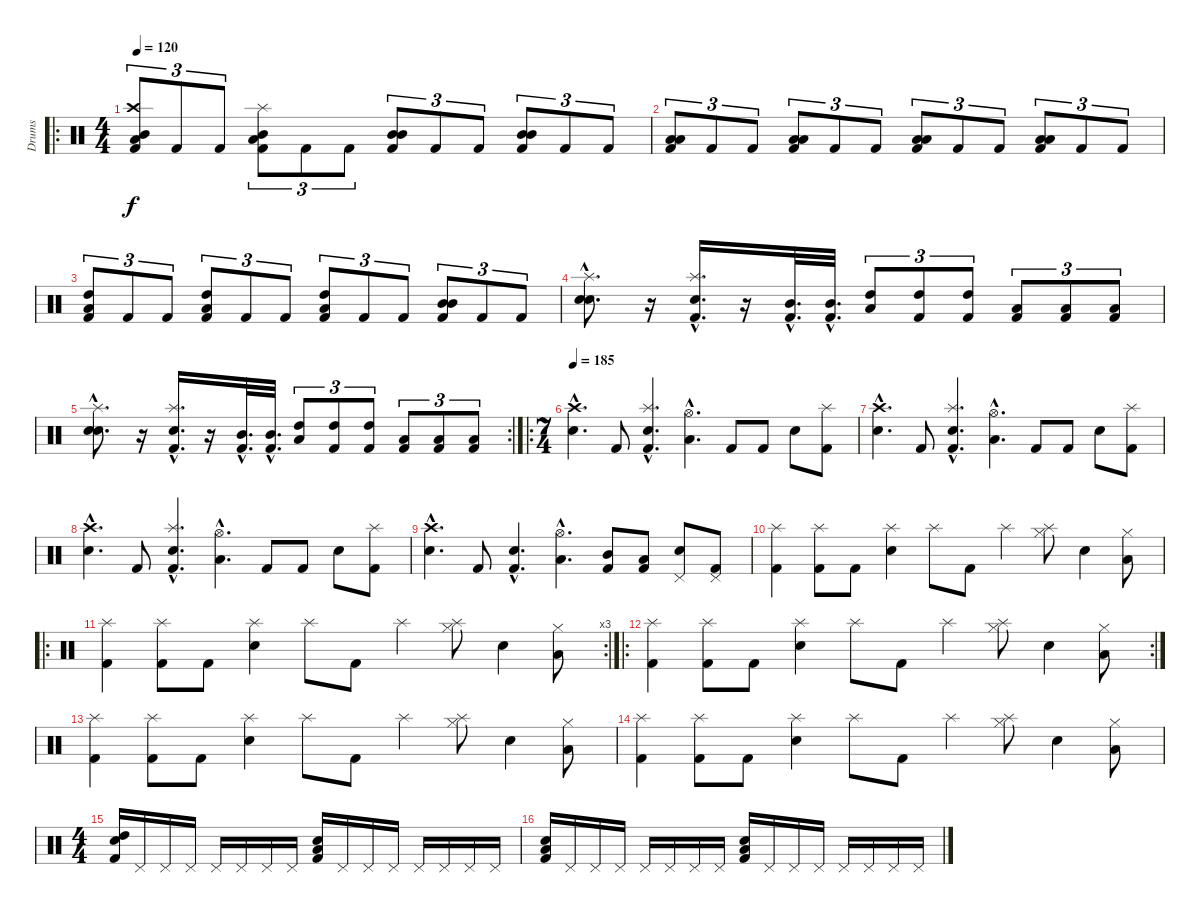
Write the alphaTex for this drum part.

\track ("Drums" "Drums") {instrument percussion}
\staff {score}
\articulation defaults
\ro
\ts (4 4)
\tempo 120
\clef neutral
\ks c
("Low Tom (hit)" "Mid Tom (hit)" "Crash high (hit)" "Kick (hit) 2").8{tu (3 2) dy f} "Kick (hit) 2".8{tu (3 2)} "Kick (hit) 2".8{tu (3 2)} ("Low Tom (hit)" "Mid Tom (hit)" "Splash (hit)" "Kick (hit) 2").8{tu (3 2)} "Kick (hit) 2".8{tu (3 2)} "Kick (hit) 2".8{tu (3 2)} ("Mid Tom (hit)" "Mid Tom (hit)" "Kick (hit) 2").8{tu (3 2)} "Kick (hit) 2".8{tu (3 2)} "Kick (hit) 2".8{tu (3 2)} ("Mid Tom (hit)" "Mid Tom (hit)" "Kick (hit) 2").8{tu (3 2)} "Kick (hit) 2".8{tu (3 2)} "Kick (hit) 2".8{tu (3 2)} |
("Low Tom (hit)" "Low Tom (hit)" "Kick (hit) 2").8{tu (3 2)} "Kick (hit) 2".8{tu (3 2)} "Kick (hit) 2".8{tu (3 2)} ("Low Tom (hit)" "Low Tom (hit)" "Kick (hit) 2").8{tu (3 2)} "Kick (hit) 2".8{tu (3 2)} "Kick (hit) 2".8{tu (3 2)} ("Low Tom (hit)" "Low Tom (hit)" "Kick (hit) 2").8{tu (3 2)} "Kick (hit) 2".8{tu (3 2)} "Kick (hit) 2".8{tu (3 2)} ("Low Tom (hit)" "Low Tom (hit)" "Kick (hit) 2").8{tu (3 2)} "Kick (hit) 2".8{tu (3 2)} "Kick (hit) 2".8{tu (3 2)} |
("Low Tom (hit)" "High Tom (hit)" "Kick (hit) 2").8{tu (3 2)} "Kick (hit) 2".8{tu (3 2)} "Kick (hit) 2".8{tu (3 2)} ("Low Tom (hit)" "High Tom (hit)" "Kick (hit) 2").8{tu (3 2)} "Kick (hit) 2".8{tu (3 2)} "Kick (hit) 2".8{tu (3 2)} ("Low Tom (hit)" "High Tom (hit)" "Kick (hit) 2").8{tu (3 2)} "Kick (hit) 2".8{tu (3 2)} "Kick (hit) 2".8{tu (3 2)} ("Mid Tom (hit)" "Mid Tom (hit)" "Kick (hit) 2").8{tu (3 2)} "Kick (hit) 2".8{tu (3 2)} "Kick (hit) 2".8{tu (3 2)} |
("Splash (hit)"{hac} "Snare (hit) 2"{hac} "Electric Snare (hit)"{hac}).8{d} r.16 ("Splash (hit)"{hac} "Electric Snare (hit)"{hac} "Kick (hit) 2"{hac}).16{d} r.16 ("Mid Tom (hit)"{hac} "Kick (hit) 2"{hac}).32{d} ("Mid Tom (hit)"{hac} "Kick (hit) 2"{hac}).32{d} ("High Tom (hit)" "Low Tom (hit)").8{tu (3 2)} ("High Tom (hit)" "Kick (hit) 2").8{tu (3 2)} ("High Tom (hit)" "Kick (hit) 2").8{tu (3 2)} ("Low Tom (hit)" "Kick (hit) 2").8{tu (3 2)} ("Low Tom (hit)" "Kick (hit) 2").8{tu (3 2)} ("Low Tom (hit)" "Kick (hit) 2").8{tu (3 2)} |
\rc 2
("Splash (hit)"{hac} "Snare (hit) 2"{hac} "Electric Snare (hit)"{hac}).8{d} r.16 ("Electric Snare (hit)"{hac} "Splash (hit)"{hac} "Kick (hit) 2"{hac}).16{d} r.16 ("Mid Tom (hit)"{hac} "Kick (hit) 2"{hac}).32{d} ("Mid Tom (hit)"{hac} "Kick (hit) 2"{hac}).32{d} ("High Tom (hit)" "Low Tom (hit)").8{tu (3 2)} ("High Tom (hit)" "Kick (hit) 2").8{tu (3 2)} ("High Tom (hit)" "Kick (hit) 2").8{tu (3 2)} ("Low Tom (hit)" "Kick (hit) 2").8{tu (3 2)} ("Low Tom (hit)" "Kick (hit) 2").8{tu (3 2)} ("Low Tom (hit)" "Kick (hit) 2").8{tu (3 2)} |
\ro
\ts (7 4)
\tempo 185
("Crash high (hit)"{hac} "Electric Snare (hit)"{hac}).4{d} "Kick (hit) 2".8 ("Splash (hit)"{hac} "Kick (hit) 2"{hac} "Electric Snare (hit)"{hac}).4{d} ("Hi-Hat (open)"{hac} "Low Tom (hit)"{hac}).4{d} "Kick (hit) 2".8 "Kick (hit) 2".8 "Electric Snare (hit)".8 ("Splash (hit)" "Kick (hit) 2").8 |
("Crash high (hit)"{hac} "Electric Snare (hit)"{hac}).4{d} "Kick (hit) 2".8 ("Splash (hit)"{hac} "Kick (hit) 2"{hac} "Electric Snare (hit)"{hac}).4{d} ("Hi-Hat (open)"{hac} "Low Tom (hit)"{hac}).4{d} "Kick (hit) 2".8 "Kick (hit) 2".8 "Electric Snare (hit)".8 ("Splash (hit)" "Kick (hit) 2").8 |
("Crash high (hit)"{hac} "Electric Snare (hit)"{hac}).4{d} "Kick (hit) 2".8 ("Splash (hit)"{hac} "Kick (hit) 2"{hac} "Electric Snare (hit)"{hac}).4{d} ("Hi-Hat (open)"{hac} "Low Tom (hit)"{hac}).4{d} "Kick (hit) 2".8 "Kick (hit) 2".8 "Electric Snare (hit)".8 ("Splash (hit)" "Kick (hit) 2").8 |
("Crash high (hit)"{hac} "Electric Snare (hit)"{hac}).4{d} "Kick (hit) 2".8 ("Kick (hit) 2"{hac} "Electric Snare (hit)"{hac}).4{d} ("Hi-Hat (open)"{hac} "Low Tom (hit)"{hac}).4{d} ("Mid Tom (hit)" "Kick (hit) 2").8 ("Low Tom (hit)" "Kick (hit) 2").8 ("Pedal Hi-Hat (hit)" "Electric Snare (hit)").8 ("Pedal Hi-Hat (hit)" "Kick (hit) 2").8 |
("Kick (hit) 2" "Splash (hit)").4 ("Splash (hit)" "Kick (hit) 2").8 "Kick (hit) 2".8 ("Splash (hit)" "Electric Snare (hit)").4 "Splash (hit)".8 "Kick (hit) 2".8 "Splash (hit)".4 ("Splash (hit)" "Hi-Hat (closed)").8 "Electric Snare (hit)".4 ("Hi-Hat (closed)" "Low Tom (hit)").8 |
\ro
\rc 3
("Kick (hit) 2" "Splash (hit)").4 ("Splash (hit)" "Kick (hit) 2").8 "Kick (hit) 2".8 ("Splash (hit)" "Electric Snare (hit)").4 "Splash (hit)".8 "Kick (hit) 2".8 "Splash (hit)".4 ("Splash (hit)" "Hi-Hat (closed)").8 "Electric Snare (hit)".4 ("Hi-Hat (closed)" "Low Tom (hit)").8 |
\ro
\rc 2
("Kick (hit) 2" "Splash (hit)").4 ("Splash (hit)" "Kick (hit) 2").8 "Kick (hit) 2".8 ("Splash (hit)" "Electric Snare (hit)").4 "Splash (hit)".8 "Kick (hit) 2".8 "Splash (hit)".4 ("Splash (hit)" "Hi-Hat (closed)").8 "Electric Snare (hit)".4 ("Hi-Hat (closed)" "Low Tom (hit)").8 |
("Kick (hit) 2" "Splash (hit)").4 ("Splash (hit)" "Kick (hit) 2").8 "Kick (hit) 2".8 ("Splash (hit)" "Electric Snare (hit)").4 "Splash (hit)".8 "Kick (hit) 2".8 "Splash (hit)".4 ("Splash (hit)" "Hi-Hat (closed)").8 "Electric Snare (hit)".4 ("Hi-Hat (closed)" "Low Tom (hit)").8 |
("Kick (hit) 2" "Splash (hit)").4 ("Splash (hit)" "Kick (hit) 2").8 "Kick (hit) 2".8 ("Splash (hit)" "Electric Snare (hit)").4 "Splash (hit)".8 "Kick (hit) 2".8 "Splash (hit)".4 ("Splash (hit)" "Hi-Hat (closed)").8 "Electric Snare (hit)".4 ("Hi-Hat (closed)" "Low Tom (hit)").8 |
\ts (4 4)
("Kick (hit) 2" "High Tom (hit)" "Electric Snare (hit)").16 "Pedal Hi-Hat (hit)".16 "Pedal Hi-Hat (hit)".16 "Pedal Hi-Hat (hit)".16 "Pedal Hi-Hat (hit)".16 "Pedal Hi-Hat (hit)".16 "Pedal Hi-Hat (hit)".16 "Pedal Hi-Hat (hit)".16 ("Low Tom (hit)" "Electric Snare (hit)" "Kick (hit) 2").16 "Pedal Hi-Hat (hit)".16 "Pedal Hi-Hat (hit)".16 "Pedal Hi-Hat (hit)".16 "Pedal Hi-Hat (hit)".16 "Pedal Hi-Hat (hit)".16 "Pedal Hi-Hat (hit)".16 "Pedal Hi-Hat (hit)".16 |
("Low Tom (hit)" "Electric Snare (hit)" "Kick (hit) 2").16 "Pedal Hi-Hat (hit)".16 "Pedal Hi-Hat (hit)".16 "Pedal Hi-Hat (hit)".16 "Pedal Hi-Hat (hit)".16 "Pedal Hi-Hat (hit)".16 "Pedal Hi-Hat (hit)".16 "Pedal Hi-Hat (hit)".16 ("Low Tom (hit)" "Electric Snare (hit)" "Kick (hit) 2").16 "Pedal Hi-Hat (hit)".16 "Pedal Hi-Hat (hit)".16 "Pedal Hi-Hat (hit)".16 "Pedal Hi-Hat (hit)".16 "Pedal Hi-Hat (hit)".16 "Pedal Hi-Hat (hit)".16 "Pedal Hi-Hat (hit)".16
